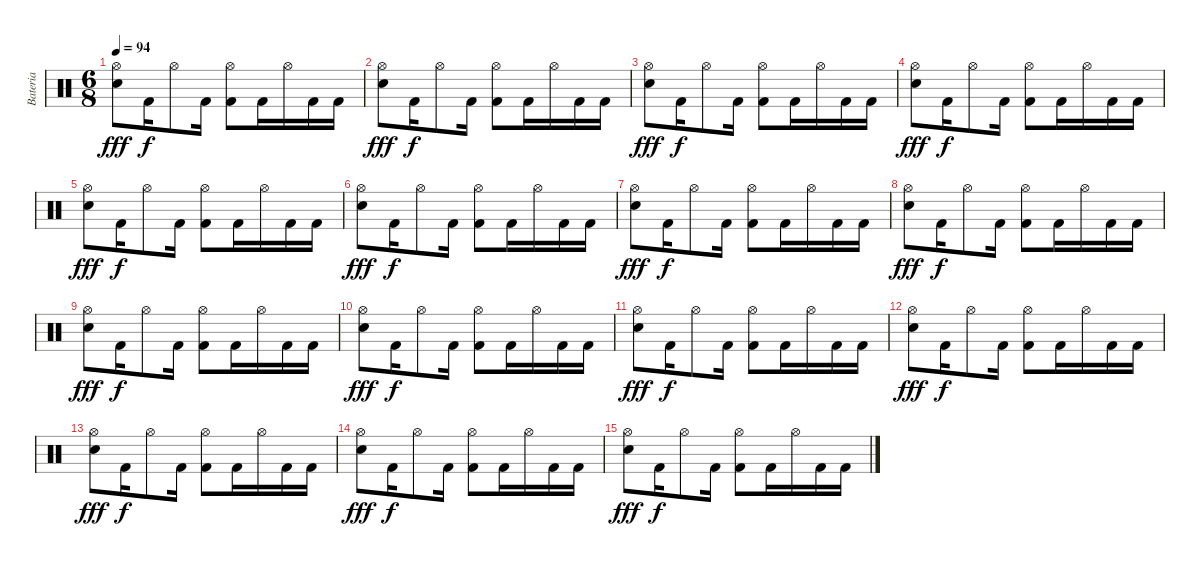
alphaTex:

\track ("Bateria" "Bateria") {instrument percussion}
\staff {score}
\articulation defaults
\ts (6 8)
\tempo 94
\clef neutral
\ks c
("Hi-Hat (open)" "Electric Snare (hit)").8{dy fff} "Kick (hit) 2".16{dy f} "Hi-Hat (open)".8 "Kick (hit) 2".16 ("Hi-Hat (open)" "Kick (hit) 2").8 "Kick (hit) 2".16 "Hi-Hat (open)".16 "Kick (hit) 2".16 "Kick (hit) 2".16 |
("Hi-Hat (open)" "Electric Snare (hit)").8{dy fff} "Kick (hit) 2".16{dy f} "Hi-Hat (open)".8 "Kick (hit) 2".16 ("Hi-Hat (open)" "Kick (hit) 2").8 "Kick (hit) 2".16 "Hi-Hat (open)".16 "Kick (hit) 2".16 "Kick (hit) 2".16 |
("Hi-Hat (open)" "Electric Snare (hit)").8{dy fff} "Kick (hit) 2".16{dy f} "Hi-Hat (open)".8 "Kick (hit) 2".16 ("Hi-Hat (open)" "Kick (hit) 2").8 "Kick (hit) 2".16 "Hi-Hat (open)".16 "Kick (hit) 2".16 "Kick (hit) 2".16 |
("Hi-Hat (open)" "Electric Snare (hit)").8{dy fff} "Kick (hit) 2".16{dy f} "Hi-Hat (open)".8 "Kick (hit) 2".16 ("Hi-Hat (open)" "Kick (hit) 2").8 "Kick (hit) 2".16 "Hi-Hat (open)".16 "Kick (hit) 2".16 "Kick (hit) 2".16 |
("Hi-Hat (open)" "Electric Snare (hit)").8{dy fff} "Kick (hit) 2".16{dy f} "Hi-Hat (open)".8 "Kick (hit) 2".16 ("Hi-Hat (open)" "Kick (hit) 2").8 "Kick (hit) 2".16 "Hi-Hat (open)".16 "Kick (hit) 2".16 "Kick (hit) 2".16 |
("Hi-Hat (open)" "Electric Snare (hit)").8{dy fff} "Kick (hit) 2".16{dy f} "Hi-Hat (open)".8 "Kick (hit) 2".16 ("Hi-Hat (open)" "Kick (hit) 2").8 "Kick (hit) 2".16 "Hi-Hat (open)".16 "Kick (hit) 2".16 "Kick (hit) 2".16 |
("Hi-Hat (open)" "Electric Snare (hit)").8{dy fff} "Kick (hit) 2".16{dy f} "Hi-Hat (open)".8 "Kick (hit) 2".16 ("Hi-Hat (open)" "Kick (hit) 2").8 "Kick (hit) 2".16 "Hi-Hat (open)".16 "Kick (hit) 2".16 "Kick (hit) 2".16 |
("Hi-Hat (open)" "Electric Snare (hit)").8{dy fff} "Kick (hit) 2".16{dy f} "Hi-Hat (open)".8 "Kick (hit) 2".16 ("Hi-Hat (open)" "Kick (hit) 2").8 "Kick (hit) 2".16 "Hi-Hat (open)".16 "Kick (hit) 2".16 "Kick (hit) 2".16 |
("Hi-Hat (open)" "Electric Snare (hit)").8{dy fff} "Kick (hit) 2".16{dy f} "Hi-Hat (open)".8 "Kick (hit) 2".16 ("Hi-Hat (open)" "Kick (hit) 2").8 "Kick (hit) 2".16 "Hi-Hat (open)".16 "Kick (hit) 2".16 "Kick (hit) 2".16 |
("Hi-Hat (open)" "Electric Snare (hit)").8{dy fff} "Kick (hit) 2".16{dy f} "Hi-Hat (open)".8 "Kick (hit) 2".16 ("Hi-Hat (open)" "Kick (hit) 2").8 "Kick (hit) 2".16 "Hi-Hat (open)".16 "Kick (hit) 2".16 "Kick (hit) 2".16 |
("Hi-Hat (open)" "Electric Snare (hit)").8{dy fff} "Kick (hit) 2".16{dy f} "Hi-Hat (open)".8 "Kick (hit) 2".16 ("Hi-Hat (open)" "Kick (hit) 2").8 "Kick (hit) 2".16 "Hi-Hat (open)".16 "Kick (hit) 2".16 "Kick (hit) 2".16 |
("Hi-Hat (open)" "Electric Snare (hit)").8{dy fff} "Kick (hit) 2".16{dy f} "Hi-Hat (open)".8 "Kick (hit) 2".16 ("Hi-Hat (open)" "Kick (hit) 2").8 "Kick (hit) 2".16 "Hi-Hat (open)".16 "Kick (hit) 2".16 "Kick (hit) 2".16 |
("Hi-Hat (open)" "Electric Snare (hit)").8{dy fff} "Kick (hit) 2".16{dy f} "Hi-Hat (open)".8 "Kick (hit) 2".16 ("Hi-Hat (open)" "Kick (hit) 2").8 "Kick (hit) 2".16 "Hi-Hat (open)".16 "Kick (hit) 2".16 "Kick (hit) 2".16 |
("Hi-Hat (open)" "Electric Snare (hit)").8{dy fff} "Kick (hit) 2".16{dy f} "Hi-Hat (open)".8 "Kick (hit) 2".16 ("Hi-Hat (open)" "Kick (hit) 2").8 "Kick (hit) 2".16 "Hi-Hat (open)".16 "Kick (hit) 2".16 "Kick (hit) 2".16 |
("Hi-Hat (open)" "Electric Snare (hit)").8{dy fff} "Kick (hit) 2".16{dy f} "Hi-Hat (open)".8 "Kick (hit) 2".16 ("Hi-Hat (open)" "Kick (hit) 2").8 "Kick (hit) 2".16 "Hi-Hat (open)".16 "Kick (hit) 2".16 "Kick (hit) 2".16
